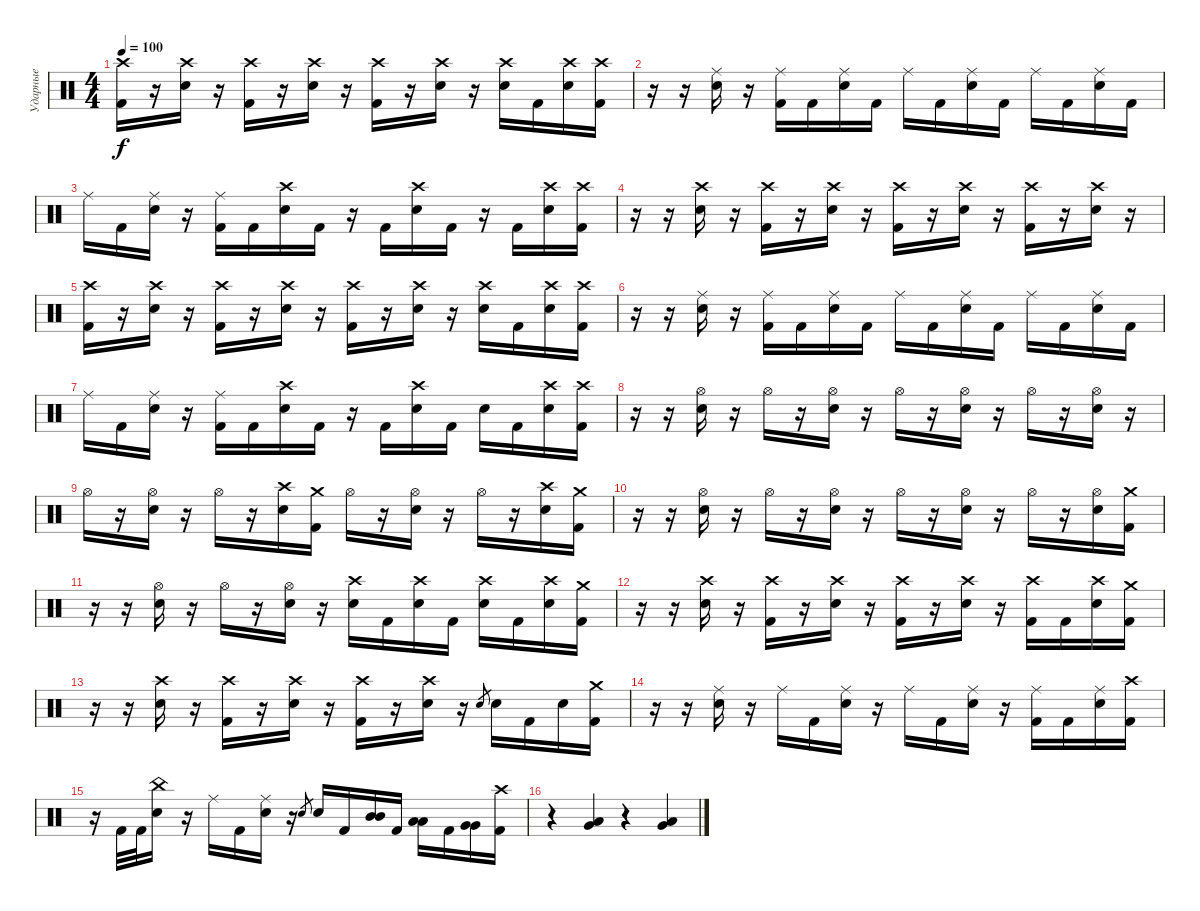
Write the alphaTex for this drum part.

\track ("Ударные" "Ударные") {instrument percussion}
\staff {score}
\articulation defaults
\ts (4 4)
\tempo 100
\clef neutral
\ks c
("Crash high (hit)" "Kick (hit) 2").16{dy f} r.16 ("Crash high (hit)" "Electric Snare (hit)").16 r.16 ("Crash high (hit)" "Kick (hit) 2").16 r.16 ("Crash high (hit)" "Electric Snare (hit)").16 r.16 ("Crash high (hit)" "Kick (hit) 2").16 r.16 ("Crash high (hit)" "Electric Snare (hit)").16 r.16 ("Crash high (hit)" "Electric Snare (hit)").16 "Kick (hit) 2".16 ("Crash high (hit)" "Electric Snare (hit)").16 ("Crash high (hit)" "Kick (hit) 2").16 |
r.16 r.16 ("Ride (middle)" "Electric Snare (hit)").16 r.16 ("Ride (middle)" "Kick (hit) 2").16 "Kick (hit) 2".16 ("Ride (middle)" "Electric Snare (hit)").16 "Kick (hit) 2".16 "Ride (middle)".16 "Kick (hit) 2".16 ("Ride (middle)" "Electric Snare (hit)").16 "Kick (hit) 2".16 "Ride (middle)".16 "Kick (hit) 2".16 ("Ride (middle)" "Electric Snare (hit)").16 "Kick (hit) 2".16 |
"Ride (middle)".16 "Kick (hit) 2".16 ("Ride (middle)" "Electric Snare (hit)").16 r.16 ("Ride (middle)" "Kick (hit) 2").16 "Kick (hit) 2".16 ("Crash high (hit)" "Electric Snare (hit)").16 "Kick (hit) 2".16 r.16 "Kick (hit) 2".16 ("Crash high (hit)" "Electric Snare (hit)").16 "Kick (hit) 2".16 r.16 "Kick (hit) 2".16 ("Crash high (hit)" "Electric Snare (hit)").16 ("Crash high (hit)" "Kick (hit) 2").16 |
r.16 r.16 ("Crash high (hit)" "Electric Snare (hit)").16 r.16 ("Crash high (hit)" "Kick (hit) 2").16 r.16 ("Crash high (hit)" "Electric Snare (hit)").16 r.16 ("Crash high (hit)" "Kick (hit) 2").16 r.16 ("Crash high (hit)" "Electric Snare (hit)").16 r.16 ("Crash high (hit)" "Kick (hit) 2").16 r.16 ("Crash high (hit)" "Electric Snare (hit)").16 r.16 |
("Crash high (hit)" "Kick (hit) 2").16 r.16 ("Crash high (hit)" "Electric Snare (hit)").16 r.16 ("Crash high (hit)" "Kick (hit) 2").16 r.16 ("Crash high (hit)" "Electric Snare (hit)").16 r.16 ("Crash high (hit)" "Kick (hit) 2").16 r.16 ("Crash high (hit)" "Electric Snare (hit)").16 r.16 ("Crash high (hit)" "Electric Snare (hit)").16 "Kick (hit) 2".16 ("Crash high (hit)" "Electric Snare (hit)").16 ("Crash high (hit)" "Kick (hit) 2").16 |
r.16 r.16 ("Ride (middle)" "Electric Snare (hit)").16 r.16 ("Ride (middle)" "Kick (hit) 2").16 "Kick (hit) 2".16 ("Ride (middle)" "Electric Snare (hit)").16 "Kick (hit) 2".16 "Ride (middle)".16 "Kick (hit) 2".16 ("Ride (middle)" "Electric Snare (hit)").16 "Kick (hit) 2".16 "Ride (middle)".16 "Kick (hit) 2".16 ("Ride (middle)" "Electric Snare (hit)").16 "Kick (hit) 2".16 |
"Ride (middle)".16 "Kick (hit) 2".16 ("Ride (middle)" "Electric Snare (hit)").16 r.16 ("Ride (middle)" "Kick (hit) 2").16 "Kick (hit) 2".16 ("Crash high (hit)" "Electric Snare (hit)").16 "Kick (hit) 2".16 r.16 "Kick (hit) 2".16 ("Crash high (hit)" "Electric Snare (hit)").16 "Kick (hit) 2".16 "Electric Snare (hit)".16 "Kick (hit) 2".16 ("Crash high (hit)" "Electric Snare (hit)").16 ("Crash high (hit)" "Kick (hit) 2").16 |
r.16 r.16 ("Hi-Hat (open)" "Electric Snare (hit)").16 r.16 "Hi-Hat (open)".16 r.16 ("Hi-Hat (open)" "Electric Snare (hit)").16 r.16 "Hi-Hat (open)".16 r.16 ("Hi-Hat (open)" "Electric Snare (hit)").16 r.16 "Hi-Hat (open)".16 r.16 ("Hi-Hat (open)" "Electric Snare (hit)").16 r.16 |
"Hi-Hat (open)".16 r.16 ("Hi-Hat (open)" "Electric Snare (hit)").16 r.16 "Hi-Hat (open)".16 r.16 ("Crash high (hit)" "Electric Snare (hit)").16 ("Crash medium (hit)" "Kick (hit) 2").16 "Hi-Hat (open)".16 r.16 ("Hi-Hat (open)" "Electric Snare (hit)").16 r.16 "Hi-Hat (open)".16 r.16 ("Crash high (hit)" "Electric Snare (hit)").16 ("Crash medium (hit)" "Kick (hit) 2").16 |
r.16 r.16 ("Hi-Hat (open)" "Electric Snare (hit)").16 r.16 "Hi-Hat (open)".16 r.16 ("Hi-Hat (open)" "Electric Snare (hit)").16 r.16 "Hi-Hat (open)".16 r.16 ("Hi-Hat (open)" "Electric Snare (hit)").16 r.16 "Hi-Hat (open)".16 r.16 ("Hi-Hat (open)" "Electric Snare (hit)").16 ("Crash medium (hit)" "Kick (hit) 2").16 |
r.16 r.16 ("Hi-Hat (open)" "Electric Snare (hit)").16 r.16 "Hi-Hat (open)".16 r.16 ("Hi-Hat (open)" "Electric Snare (hit)").16 r.16 ("Crash high (hit)" "Electric Snare (hit)").16 "Kick (hit) 2".16 ("Crash high (hit)" "Electric Snare (hit)").16 "Kick (hit) 2".16 ("Crash high (hit)" "Electric Snare (hit)").16 "Kick (hit) 2".16 ("Crash high (hit)" "Electric Snare (hit)").16 ("Crash medium (hit)" "Kick (hit) 2").16 |
r.16 r.16 ("Crash high (hit)" "Electric Snare (hit)").16 r.16 ("Crash high (hit)" "Kick (hit) 2").16 r.16 ("Crash high (hit)" "Electric Snare (hit)").16 r.16 ("Crash high (hit)" "Kick (hit) 2").16 r.16 ("Crash high (hit)" "Electric Snare (hit)").16 r.16 ("Crash high (hit)" "Kick (hit) 2").16 "Kick (hit) 2".16 ("Crash high (hit)" "Electric Snare (hit)").16 ("Crash medium (hit)" "Kick (hit) 2").16 |
r.16 r.16 ("Crash high (hit)" "Electric Snare (hit)").16 r.16 ("Crash high (hit)" "Kick (hit) 2").16 r.16 ("Crash high (hit)" "Electric Snare (hit)").16 r.16 ("Crash high (hit)" "Kick (hit) 2").16 r.16 ("Crash high (hit)" "Electric Snare (hit)").16 r.16 "Electric Snare (hit)".8{gr} "Electric Snare (hit)".16 "Kick (hit) 2".16 "Electric Snare (hit)".16 ("Crash medium (hit)" "Kick (hit) 2").16 |
r.16 r.16 ("Ride (middle)" "Electric Snare (hit)").16 r.16 "Ride (middle)".16 "Kick (hit) 2".16 ("Ride (middle)" "Electric Snare (hit)").16 r.16 "Ride (middle)".16 "Kick (hit) 2".16 ("Ride (middle)" "Electric Snare (hit)").16 r.16 ("Ride (middle)" "Kick (hit) 2").16 "Kick (hit) 2".16 ("Ride (middle)" "Electric Snare (hit)").16 ("Crash high (hit)" "Kick (hit) 2").16 |
r.16 "Kick (hit) 2".32 "Kick (hit) 2".32 ("China (hit)" "Electric Snare (hit)").16 r.16 "Ride (middle)".16 "Kick (hit) 2".16 ("Ride (middle)" "Electric Snare (hit)").16 r.16 "Electric Snare (hit)".8{gr} "Electric Snare (hit)".16 "Kick (hit) 2".16 ("Mid Tom (hit)" "Mid Tom (hit)").16 "Kick (hit) 2".16 ("Low Tom (hit)" "Low Tom (hit)").16 "Kick (hit) 2".16 ("Very Low Tom (hit)" "Very Low Tom (hit)").16 ("Crash high (hit)" "Kick (hit) 2").16 |
r.4 ("Very Low Tom (hit)" "Low Tom (hit)").4 r.4 ("Very Low Tom (hit)" "Low Tom (hit)").4
